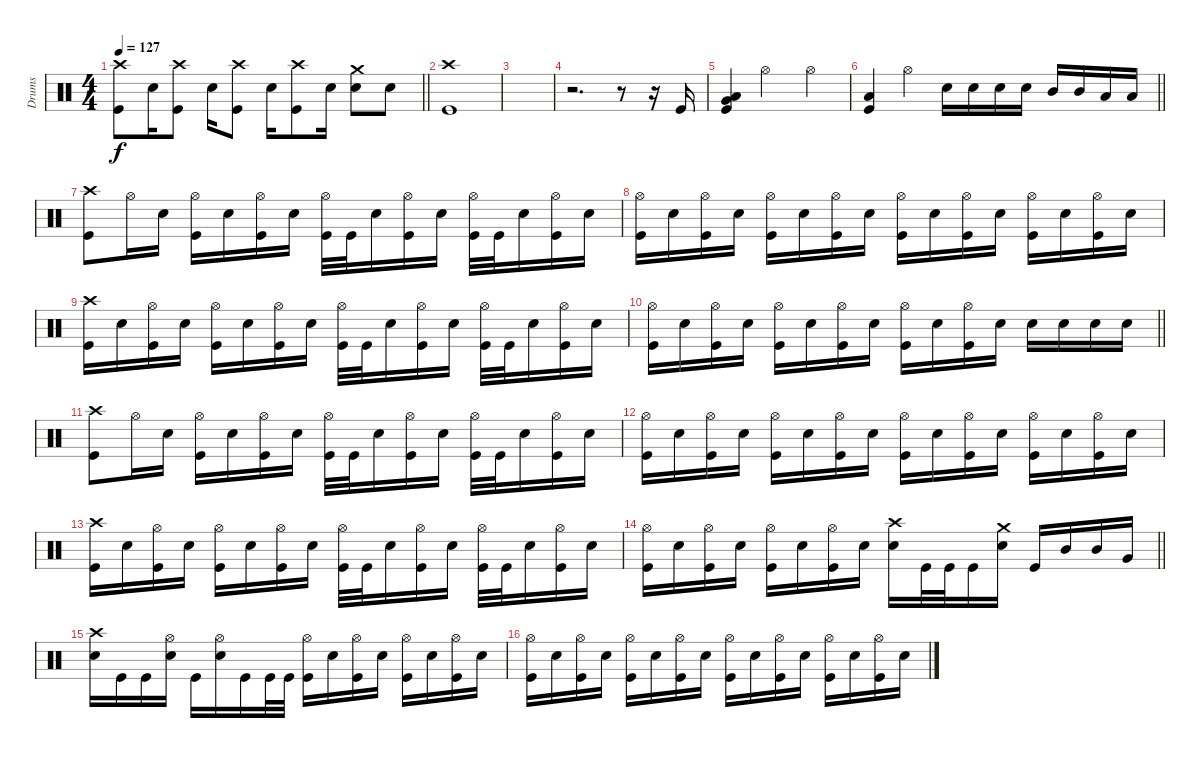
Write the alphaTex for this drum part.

\track ("Drums" "Drums") {instrument percussion}
\staff
\articulation defaults
\ts (4 4)
\tempo 127
\clef neutral
\barLineRight lightlight
\ks c
("Crash high (hit)" "Kick (hit)").8{dy f} "Electric Snare (hit)".16 ("Crash high (hit)" "Kick (hit)").8 "Electric Snare (hit)".16 ("Crash high (hit)" "Kick (hit)").8 "Electric Snare (hit)".16 ("Crash high (hit)" "Kick (hit)").8 "Electric Snare (hit)".16 ("Crash medium (hit)" "Electric Snare (hit)").8 "Electric Snare (hit)".8 |
\section ("" "")
("Crash high (hit)" "Kick (hit)").1 |
|
r.2{d} r.8 r.16 "Kick (hit)".16 |
("Very Low Tom (hit)" "Low Floor Tom (hit)" "Kick (hit)").4 "Hi-Hat (open)".2 "Hi-Hat (open)".4 |
\barLineRight lightlight
("Low Floor Tom (hit)" "Kick (hit)").4 "Hi-Hat (open)".4 "Electric Snare (hit)".16 "Electric Snare (hit)".16 "Electric Snare (hit)".16 "Electric Snare (hit)".16 "Mid Tom (hit)".16 "Mid Tom (hit)".16 "Low Tom (hit)".16 "Low Tom (hit)".16 |
("Crash high (hit)" "Kick (hit)").8 "Hi-Hat (open)".16 "Electric Snare (hit)".16 ("Hi-Hat (open)" "Kick (hit)").16 "Electric Snare (hit)".16 ("Hi-Hat (open)" "Kick (hit)").16 "Electric Snare (hit)".16 ("Hi-Hat (open)" "Kick (hit)").32 "Kick (hit)".32 "Electric Snare (hit)".16 ("Hi-Hat (open)" "Kick (hit)").16 "Electric Snare (hit)".16 ("Hi-Hat (open)" "Kick (hit)").32 "Kick (hit)".32 "Electric Snare (hit)".16 ("Hi-Hat (open)" "Kick (hit)").16 "Electric Snare (hit)".16 |
("Hi-Hat (open)" "Kick (hit)").16 "Electric Snare (hit)".16 ("Hi-Hat (open)" "Kick (hit)").16 "Electric Snare (hit)".16 ("Hi-Hat (open)" "Kick (hit)").16 "Electric Snare (hit)".16 ("Hi-Hat (open)" "Kick (hit)").16 "Electric Snare (hit)".16 ("Hi-Hat (open)" "Kick (hit)").16 "Electric Snare (hit)".16 ("Hi-Hat (open)" "Kick (hit)").16 "Electric Snare (hit)".16 ("Hi-Hat (open)" "Kick (hit)").16 "Electric Snare (hit)".16 ("Hi-Hat (open)" "Kick (hit)").16 "Electric Snare (hit)".16 |
("Crash high (hit)" "Kick (hit)").16 "Electric Snare (hit)".16 ("Hi-Hat (open)" "Kick (hit)").16 "Electric Snare (hit)".16 ("Hi-Hat (open)" "Kick (hit)").16 "Electric Snare (hit)".16 ("Hi-Hat (open)" "Kick (hit)").16 "Electric Snare (hit)".16 ("Hi-Hat (open)" "Kick (hit)").32 "Kick (hit)".32 "Electric Snare (hit)".16 ("Hi-Hat (open)" "Kick (hit)").16 "Electric Snare (hit)".16 ("Hi-Hat (open)" "Kick (hit)").32 "Kick (hit)".32 "Electric Snare (hit)".16 ("Hi-Hat (open)" "Kick (hit)").16 "Electric Snare (hit)".16 |
\barLineRight lightlight
("Hi-Hat (open)" "Kick (hit)").16 "Electric Snare (hit)".16 ("Hi-Hat (open)" "Kick (hit)").16 "Electric Snare (hit)".16 ("Hi-Hat (open)" "Kick (hit)").16 "Electric Snare (hit)".16 ("Hi-Hat (open)" "Kick (hit)").16 "Electric Snare (hit)".16 ("Hi-Hat (open)" "Kick (hit)").16 "Electric Snare (hit)".16 ("Hi-Hat (open)" "Kick (hit)").16 "Electric Snare (hit)".16 "Electric Snare (hit)".16 "Electric Snare (hit)".16 "Electric Snare (hit)".16 "Electric Snare (hit)".16 |
("Crash high (hit)" "Kick (hit)").8 "Hi-Hat (open)".16 "Electric Snare (hit)".16 ("Hi-Hat (open)" "Kick (hit)").16 "Electric Snare (hit)".16 ("Hi-Hat (open)" "Kick (hit)").16 "Electric Snare (hit)".16 ("Hi-Hat (open)" "Kick (hit)").32 "Kick (hit)".32 "Electric Snare (hit)".16 ("Hi-Hat (open)" "Kick (hit)").16 "Electric Snare (hit)".16 ("Hi-Hat (open)" "Kick (hit)").32 "Kick (hit)".32 "Electric Snare (hit)".16 ("Hi-Hat (open)" "Kick (hit)").16 "Electric Snare (hit)".16 |
("Hi-Hat (open)" "Kick (hit)").16 "Electric Snare (hit)".16 ("Hi-Hat (open)" "Kick (hit)").16 "Electric Snare (hit)".16 ("Hi-Hat (open)" "Kick (hit)").16 "Electric Snare (hit)".16 ("Hi-Hat (open)" "Kick (hit)").16 "Electric Snare (hit)".16 ("Hi-Hat (open)" "Kick (hit)").16 "Electric Snare (hit)".16 ("Hi-Hat (open)" "Kick (hit)").16 "Electric Snare (hit)".16 ("Hi-Hat (open)" "Kick (hit)").16 "Electric Snare (hit)".16 ("Hi-Hat (open)" "Kick (hit)").16 "Electric Snare (hit)".16 |
("Crash high (hit)" "Kick (hit)").16 "Electric Snare (hit)".16 ("Hi-Hat (open)" "Kick (hit)").16 "Electric Snare (hit)".16 ("Hi-Hat (open)" "Kick (hit)").16 "Electric Snare (hit)".16 ("Hi-Hat (open)" "Kick (hit)").16 "Electric Snare (hit)".16 ("Hi-Hat (open)" "Kick (hit)").32 "Kick (hit)".32 "Electric Snare (hit)".16 ("Hi-Hat (open)" "Kick (hit)").16 "Electric Snare (hit)".16 ("Hi-Hat (open)" "Kick (hit)").32 "Kick (hit)".32 "Electric Snare (hit)".16 ("Hi-Hat (open)" "Kick (hit)").16 "Electric Snare (hit)".16 |
\barLineRight lightlight
("Hi-Hat (open)" "Kick (hit)").16 "Electric Snare (hit)".16 ("Hi-Hat (open)" "Kick (hit)").16 "Electric Snare (hit)".16 ("Hi-Hat (open)" "Kick (hit)").16 "Electric Snare (hit)".16 ("Hi-Hat (open)" "Kick (hit)").16 "Electric Snare (hit)".16 ("Crash high (hit)" "Electric Snare (hit)").16 "Kick (hit)".32 "Kick (hit)".32 "Kick (hit)".16 ("Crash medium (hit)" "Electric Snare (hit)").16 "Kick (hit)".16 "Mid Tom (hit)".16 "Mid Tom (hit)".16 "Very Low Tom (hit)".16 |
("Crash high (hit)" "Electric Snare (hit)").16 "Kick (hit)".16 "Kick (hit)".16 ("Hi-Hat (open)" "Electric Snare (hit)").16 "Kick (hit)".16 ("Hi-Hat (open)" "Electric Snare (hit)").16 "Kick (hit)".16 "Kick (hit)".32 "Kick (hit)".32 ("Hi-Hat (open)" "Kick (hit)").16 "Electric Snare (hit)".16 ("Hi-Hat (open)" "Kick (hit)").16 "Electric Snare (hit)".16 ("Hi-Hat (open)" "Kick (hit)").16 "Electric Snare (hit)".16 ("Hi-Hat (open)" "Kick (hit)").16 "Electric Snare (hit)".16 |
("Hi-Hat (open)" "Kick (hit)").16 "Electric Snare (hit)".16 ("Hi-Hat (open)" "Kick (hit)").16 "Electric Snare (hit)".16 ("Hi-Hat (open)" "Kick (hit)").16 "Electric Snare (hit)".16 ("Hi-Hat (open)" "Kick (hit)").16 "Electric Snare (hit)".16 ("Hi-Hat (open)" "Kick (hit)").16 "Electric Snare (hit)".16 ("Hi-Hat (open)" "Kick (hit)").16 "Electric Snare (hit)".16 ("Hi-Hat (open)" "Kick (hit)").16 "Electric Snare (hit)".16 ("Hi-Hat (open)" "Kick (hit)").16 "Electric Snare (hit)".16
